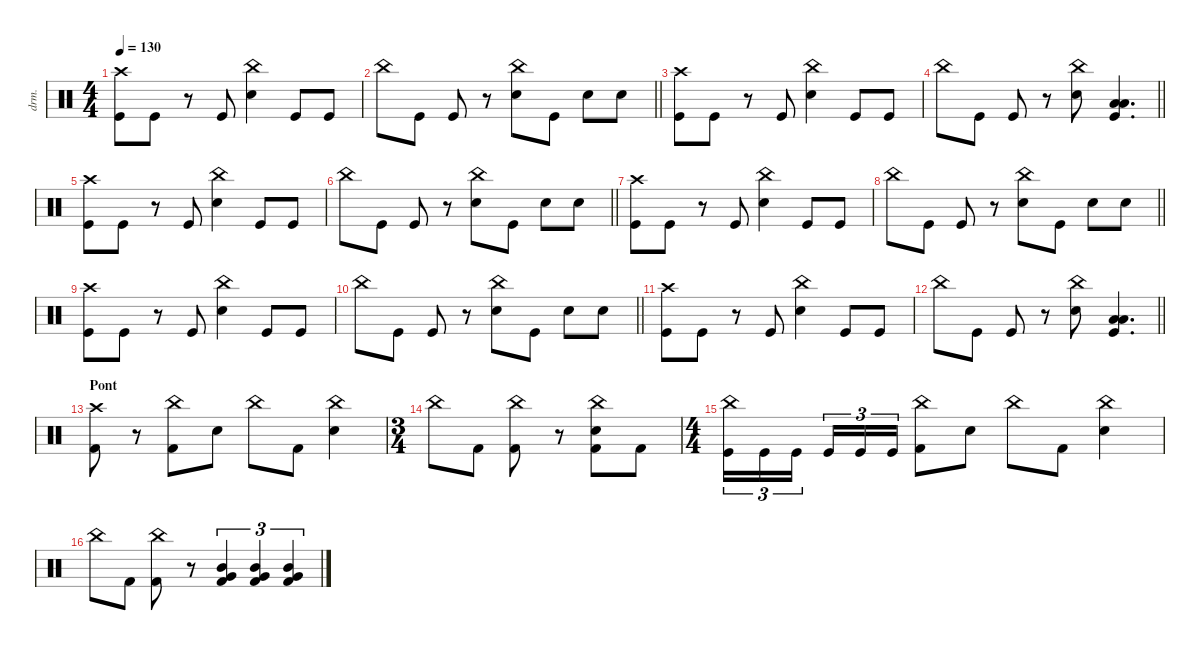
\defaultSystemsLayout 4
\hideDynamics
\bracketExtendMode nobrackets
\track ("Manouche" "drm.") {instrument percussion}
\staff {score}
\articulation defaults
\ts (4 4)
\tempo 130
\clef neutral
\ks c
("Crash high (hit)" "Kick (hit)").8{dy f} "Kick (hit)".8 r.8 "Kick (hit)".8 ("China (hit)" "Snare (hit) 2").4 "Kick (hit)".8 "Kick (hit)".8 |
\barLineRight lightlight "China (hit)".8 "Kick (hit)".8 "Kick (hit)".8
r.8 ("China (hit)" "Snare (hit) 2").8 "Kick (hit)".8 "Snare (hit) 2".8 "Snare (hit) 2".8 |
("Crash high (hit)" "Kick (hit)").8 "Kick (hit)".8 r.8 "Kick (hit)".8 ("China (hit)" "Snare (hit) 2").4 "Kick (hit)".8 "Kick (hit)".8 |
\barLineRight lightlight "China (hit)".8 "Kick (hit)".8 "Kick (hit)".8
r.8 ("China (hit)" "Snare (hit) 2").8 ("Low Tom (hit)" "Kick (hit)" "Low Floor Tom (hit)").4{d dy ff} |
("Crash high (hit)" "Kick (hit)").8{dy f} "Kick (hit)".8 r.8 "Kick (hit)".8 ("China (hit)" "Snare (hit) 2").4 "Kick (hit)".8 "Kick (hit)".8 |
\barLineRight lightlight "China (hit)".8 "Kick (hit)".8 "Kick (hit)".8
r.8 ("China (hit)" "Snare (hit) 2").8 "Kick (hit)".8 "Snare (hit) 2".8 "Snare (hit) 2".8 |
("Crash high (hit)" "Kick (hit)").8 "Kick (hit)".8 r.8 "Kick (hit)".8 ("China (hit)" "Snare (hit) 2").4 "Kick (hit)".8 "Kick (hit)".8 |
\barLineRight lightlight "China (hit)".8 "Kick (hit)".8 "Kick (hit)".8
r.8 ("China (hit)" "Snare (hit) 2").8 "Kick (hit)".8 "Snare (hit) 2".8 "Snare (hit) 2".8 |
("Crash high (hit)" "Kick (hit)").8 "Kick (hit)".8 r.8 "Kick (hit)".8 ("China (hit)" "Snare (hit) 2").4 "Kick (hit)".8 "Kick (hit)".8 |
\barLineRight lightlight "China (hit)".8 "Kick (hit)".8 "Kick (hit)".8
r.8 ("China (hit)" "Snare (hit) 2").8 "Kick (hit)".8 "Snare (hit) 2".8 "Snare (hit) 2".8 |
("Crash high (hit)" "Kick (hit)").8 "Kick (hit)".8 r.8 "Kick (hit)".8 ("China (hit)" "Snare (hit) 2").4 "Kick (hit)".8 "Kick (hit)".8 |
\barLineRight lightlight "China (hit)".8 "Kick (hit)".8 "Kick (hit)".8
r.8 ("China (hit)" "Snare (hit) 2").8 ("Low Tom (hit)" "Kick (hit)" "Low Floor Tom (hit)").4{d dy ff} |
\section ("" "Pont")
("Crash high (hit)" "Kick (hit) 2").8{dy f} r.8 ("China (hit)" "Kick (hit) 2").8 "Snare (hit) 2".8 "China (hit)".8 "Kick (hit) 2".8 ("China (hit)" "Snare (hit) 2").4 |
\ts (3 4)
\beaming (8 2 2 2)
"China (hit)".8 "Kick (hit) 2".8 ("China (hit)" "Kick (hit) 2").8 r.8 ("China (hit)" "Snare (hit) 2" "Kick (hit) 2").8 "Kick (hit) 2".8 |
\ts (4 4)
\beaming (8 2 2 2 2)
("Kick (hit)" "China (hit)").16{tu (3 2)} "Kick (hit)".16{tu (3 2)} "Kick (hit)".16{tu (3 2)} "Kick (hit)".16{tu (3 2)} "Kick (hit)".16{tu (3 2)} "Kick (hit)".16{tu (3 2)} ("China (hit)" "Kick (hit) 2").8 "Snare (hit) 2".8 "China (hit)".8 "Kick (hit) 2".8 ("China (hit)" "Snare (hit) 2").4 |
"China (hit)".8 "Kick (hit) 2".8 ("Kick (hit) 2" "China (hit)").8 r.8 ("Kick (hit) 2" "Mid Tom (hit)" "Very Low Tom (hit)").4{tu (3 2)} ("Kick (hit) 2" "Mid Tom (hit)" "Very Low Tom (hit)").4{tu (3 2)} ("Kick (hit) 2" "Mid Tom (hit)" "Very Low Tom (hit)").4{tu (3 2)}
